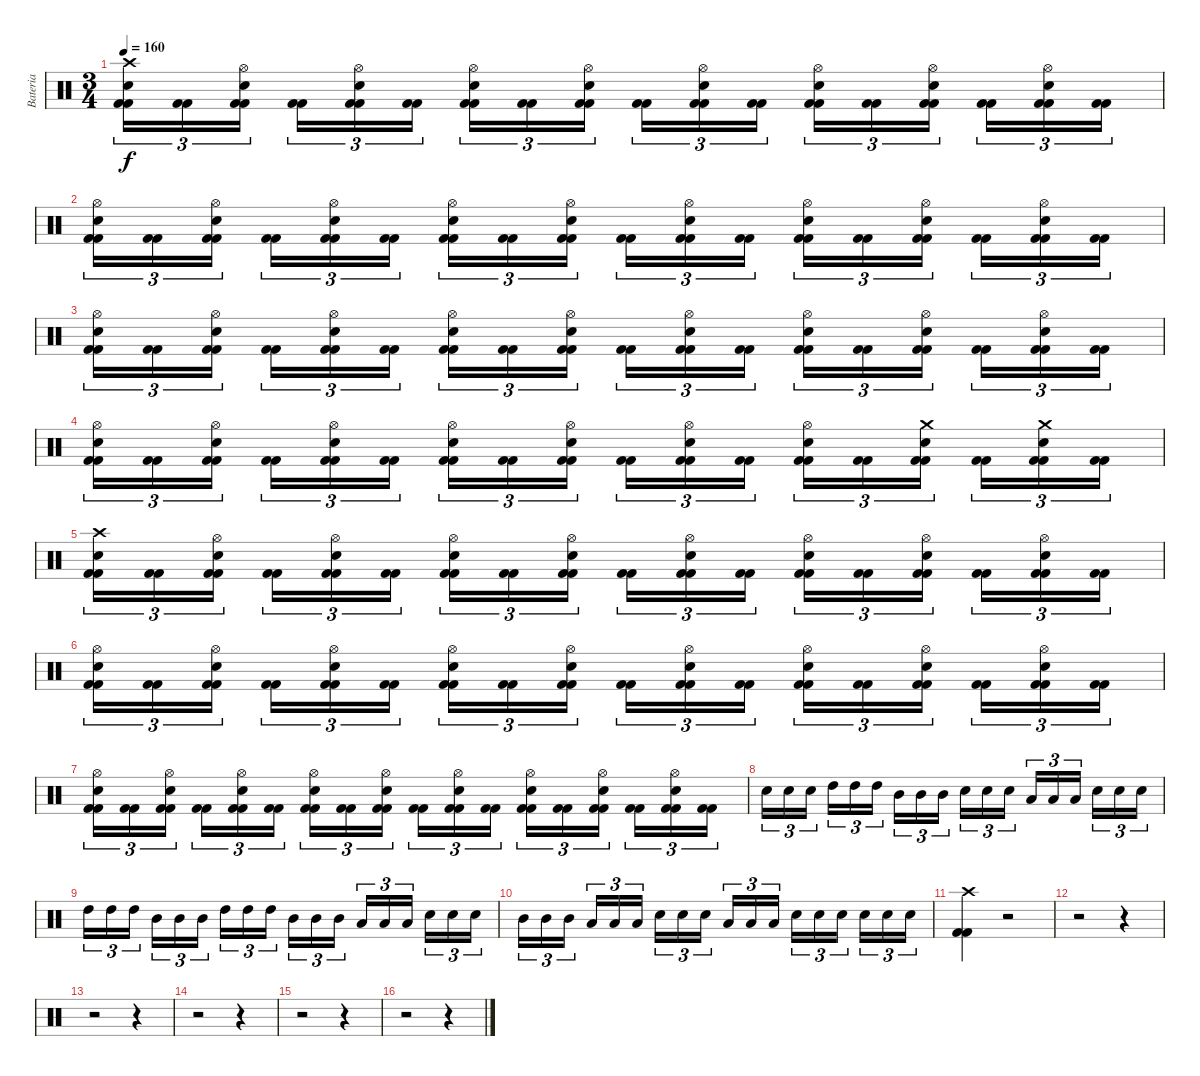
\track ("Bateria" "Bateria") {instrument percussion}
\staff {score}
\articulation defaults
\ts (3 4)
\tempo 160
\clef neutral
\ks c
("Kick (hit) 2" "Kick (hit) 2" "Snare (hit) 2" "Crash high (hit)").16{tu (3 2) dy f} ("Kick (hit) 2" "Kick (hit) 2").16{tu (3 2)} ("Kick (hit) 2" "Kick (hit) 2" "Snare (hit) 2" "Hi-Hat (open)").16{tu (3 2)} ("Kick (hit) 2" "Kick (hit) 2").16{tu (3 2)} ("Kick (hit) 2" "Kick (hit) 2" "Snare (hit) 2" "Hi-Hat (open)").16{tu (3 2)} ("Kick (hit) 2" "Kick (hit) 2").16{tu (3 2)} ("Kick (hit) 2" "Kick (hit) 2" "Snare (hit) 2" "Hi-Hat (open)").16{tu (3 2)} ("Kick (hit) 2" "Kick (hit) 2").16{tu (3 2)} ("Kick (hit) 2" "Kick (hit) 2" "Snare (hit) 2" "Hi-Hat (open)").16{tu (3 2)} ("Kick (hit) 2" "Kick (hit) 2").16{tu (3 2)} ("Kick (hit) 2" "Kick (hit) 2" "Snare (hit) 2" "Hi-Hat (open)").16{tu (3 2)} ("Kick (hit) 2" "Kick (hit) 2").16{tu (3 2)} ("Kick (hit) 2" "Kick (hit) 2" "Snare (hit) 2" "Hi-Hat (open)").16{tu (3 2)} ("Kick (hit) 2" "Kick (hit) 2").16{tu (3 2)} ("Kick (hit) 2" "Kick (hit) 2" "Snare (hit) 2" "Hi-Hat (open)").16{tu (3 2)} ("Kick (hit) 2" "Kick (hit) 2").16{tu (3 2)} ("Kick (hit) 2" "Kick (hit) 2" "Snare (hit) 2" "Hi-Hat (open)").16{tu (3 2)} ("Kick (hit) 2" "Kick (hit) 2").16{tu (3 2)} |
("Kick (hit) 2" "Kick (hit) 2" "Snare (hit) 2" "Hi-Hat (open)").16{tu (3 2)} ("Kick (hit) 2" "Kick (hit) 2").16{tu (3 2)} ("Kick (hit) 2" "Kick (hit) 2" "Snare (hit) 2" "Hi-Hat (open)").16{tu (3 2)} ("Kick (hit) 2" "Kick (hit) 2").16{tu (3 2)} ("Kick (hit) 2" "Kick (hit) 2" "Snare (hit) 2" "Hi-Hat (open)").16{tu (3 2)} ("Kick (hit) 2" "Kick (hit) 2").16{tu (3 2)} ("Kick (hit) 2" "Kick (hit) 2" "Snare (hit) 2" "Hi-Hat (open)").16{tu (3 2)} ("Kick (hit) 2" "Kick (hit) 2").16{tu (3 2)} ("Kick (hit) 2" "Kick (hit) 2" "Snare (hit) 2" "Hi-Hat (open)").16{tu (3 2)} ("Kick (hit) 2" "Kick (hit) 2").16{tu (3 2)} ("Kick (hit) 2" "Kick (hit) 2" "Snare (hit) 2" "Hi-Hat (open)").16{tu (3 2)} ("Kick (hit) 2" "Kick (hit) 2").16{tu (3 2)} ("Kick (hit) 2" "Kick (hit) 2" "Snare (hit) 2" "Hi-Hat (open)").16{tu (3 2)} ("Kick (hit) 2" "Kick (hit) 2").16{tu (3 2)} ("Kick (hit) 2" "Kick (hit) 2" "Snare (hit) 2" "Hi-Hat (open)").16{tu (3 2)} ("Kick (hit) 2" "Kick (hit) 2").16{tu (3 2)} ("Kick (hit) 2" "Kick (hit) 2" "Snare (hit) 2" "Hi-Hat (open)").16{tu (3 2)} ("Kick (hit) 2" "Kick (hit) 2").16{tu (3 2)} |
("Kick (hit) 2" "Kick (hit) 2" "Snare (hit) 2" "Hi-Hat (open)").16{tu (3 2)} ("Kick (hit) 2" "Kick (hit) 2").16{tu (3 2)} ("Kick (hit) 2" "Kick (hit) 2" "Snare (hit) 2" "Hi-Hat (open)").16{tu (3 2)} ("Kick (hit) 2" "Kick (hit) 2").16{tu (3 2)} ("Kick (hit) 2" "Kick (hit) 2" "Snare (hit) 2" "Hi-Hat (open)").16{tu (3 2)} ("Kick (hit) 2" "Kick (hit) 2").16{tu (3 2)} ("Kick (hit) 2" "Kick (hit) 2" "Snare (hit) 2" "Hi-Hat (open)").16{tu (3 2)} ("Kick (hit) 2" "Kick (hit) 2").16{tu (3 2)} ("Kick (hit) 2" "Kick (hit) 2" "Snare (hit) 2" "Hi-Hat (open)").16{tu (3 2)} ("Kick (hit) 2" "Kick (hit) 2").16{tu (3 2)} ("Kick (hit) 2" "Kick (hit) 2" "Snare (hit) 2" "Hi-Hat (open)").16{tu (3 2)} ("Kick (hit) 2" "Kick (hit) 2").16{tu (3 2)} ("Kick (hit) 2" "Kick (hit) 2" "Snare (hit) 2" "Hi-Hat (open)").16{tu (3 2)} ("Kick (hit) 2" "Kick (hit) 2").16{tu (3 2)} ("Kick (hit) 2" "Kick (hit) 2" "Snare (hit) 2" "Hi-Hat (open)").16{tu (3 2)} ("Kick (hit) 2" "Kick (hit) 2").16{tu (3 2)} ("Kick (hit) 2" "Kick (hit) 2" "Snare (hit) 2" "Hi-Hat (open)").16{tu (3 2)} ("Kick (hit) 2" "Kick (hit) 2").16{tu (3 2)} |
("Kick (hit) 2" "Kick (hit) 2" "Snare (hit) 2" "Hi-Hat (open)").16{tu (3 2)} ("Kick (hit) 2" "Kick (hit) 2").16{tu (3 2)} ("Kick (hit) 2" "Kick (hit) 2" "Snare (hit) 2" "Hi-Hat (open)").16{tu (3 2)} ("Kick (hit) 2" "Kick (hit) 2").16{tu (3 2)} ("Kick (hit) 2" "Kick (hit) 2" "Snare (hit) 2" "Hi-Hat (open)").16{tu (3 2)} ("Kick (hit) 2" "Kick (hit) 2").16{tu (3 2)} ("Kick (hit) 2" "Kick (hit) 2" "Snare (hit) 2" "Hi-Hat (open)").16{tu (3 2)} ("Kick (hit) 2" "Kick (hit) 2").16{tu (3 2)} ("Kick (hit) 2" "Kick (hit) 2" "Snare (hit) 2" "Hi-Hat (open)").16{tu (3 2)} ("Kick (hit) 2" "Kick (hit) 2").16{tu (3 2)} ("Kick (hit) 2" "Kick (hit) 2" "Snare (hit) 2" "Hi-Hat (open)").16{tu (3 2)} ("Kick (hit) 2" "Kick (hit) 2").16{tu (3 2)} ("Kick (hit) 2" "Kick (hit) 2" "Snare (hit) 2" "Hi-Hat (open)").16{tu (3 2)} ("Kick (hit) 2" "Kick (hit) 2").16{tu (3 2)} ("Kick (hit) 2" "Kick (hit) 2" "Snare (hit) 2" "Crash medium (hit)").16{tu (3 2)} ("Kick (hit) 2" "Kick (hit) 2").16{tu (3 2)} ("Kick (hit) 2" "Kick (hit) 2" "Snare (hit) 2" "Crash medium (hit)").16{tu (3 2)} ("Kick (hit) 2" "Kick (hit) 2").16{tu (3 2)} |
("Kick (hit) 2" "Kick (hit) 2" "Snare (hit) 2" "Crash high (hit)").16{tu (3 2)} ("Kick (hit) 2" "Kick (hit) 2").16{tu (3 2)} ("Kick (hit) 2" "Kick (hit) 2" "Snare (hit) 2" "Hi-Hat (open)").16{tu (3 2)} ("Kick (hit) 2" "Kick (hit) 2").16{tu (3 2)} ("Kick (hit) 2" "Kick (hit) 2" "Snare (hit) 2" "Hi-Hat (open)").16{tu (3 2)} ("Kick (hit) 2" "Kick (hit) 2").16{tu (3 2)} ("Kick (hit) 2" "Kick (hit) 2" "Snare (hit) 2" "Hi-Hat (open)").16{tu (3 2)} ("Kick (hit) 2" "Kick (hit) 2").16{tu (3 2)} ("Kick (hit) 2" "Kick (hit) 2" "Snare (hit) 2" "Hi-Hat (open)").16{tu (3 2)} ("Kick (hit) 2" "Kick (hit) 2").16{tu (3 2)} ("Kick (hit) 2" "Kick (hit) 2" "Snare (hit) 2" "Hi-Hat (open)").16{tu (3 2)} ("Kick (hit) 2" "Kick (hit) 2").16{tu (3 2)} ("Kick (hit) 2" "Kick (hit) 2" "Snare (hit) 2" "Hi-Hat (open)").16{tu (3 2)} ("Kick (hit) 2" "Kick (hit) 2").16{tu (3 2)} ("Kick (hit) 2" "Kick (hit) 2" "Snare (hit) 2" "Hi-Hat (open)").16{tu (3 2)} ("Kick (hit) 2" "Kick (hit) 2").16{tu (3 2)} ("Kick (hit) 2" "Kick (hit) 2" "Snare (hit) 2" "Hi-Hat (open)").16{tu (3 2)} ("Kick (hit) 2" "Kick (hit) 2").16{tu (3 2)} |
("Kick (hit) 2" "Kick (hit) 2" "Snare (hit) 2" "Hi-Hat (open)").16{tu (3 2)} ("Kick (hit) 2" "Kick (hit) 2").16{tu (3 2)} ("Kick (hit) 2" "Kick (hit) 2" "Snare (hit) 2" "Hi-Hat (open)").16{tu (3 2)} ("Kick (hit) 2" "Kick (hit) 2").16{tu (3 2)} ("Kick (hit) 2" "Kick (hit) 2" "Snare (hit) 2" "Hi-Hat (open)").16{tu (3 2)} ("Kick (hit) 2" "Kick (hit) 2").16{tu (3 2)} ("Kick (hit) 2" "Kick (hit) 2" "Snare (hit) 2" "Hi-Hat (open)").16{tu (3 2)} ("Kick (hit) 2" "Kick (hit) 2").16{tu (3 2)} ("Kick (hit) 2" "Kick (hit) 2" "Snare (hit) 2" "Hi-Hat (open)").16{tu (3 2)} ("Kick (hit) 2" "Kick (hit) 2").16{tu (3 2)} ("Kick (hit) 2" "Kick (hit) 2" "Snare (hit) 2" "Hi-Hat (open)").16{tu (3 2)} ("Kick (hit) 2" "Kick (hit) 2").16{tu (3 2)} ("Kick (hit) 2" "Kick (hit) 2" "Snare (hit) 2" "Hi-Hat (open)").16{tu (3 2)} ("Kick (hit) 2" "Kick (hit) 2").16{tu (3 2)} ("Kick (hit) 2" "Kick (hit) 2" "Snare (hit) 2" "Hi-Hat (open)").16{tu (3 2)} ("Kick (hit) 2" "Kick (hit) 2").16{tu (3 2)} ("Kick (hit) 2" "Kick (hit) 2" "Snare (hit) 2" "Hi-Hat (open)").16{tu (3 2)} ("Kick (hit) 2" "Kick (hit) 2").16{tu (3 2)} |
("Kick (hit) 2" "Kick (hit) 2" "Snare (hit) 2" "Hi-Hat (open)").16{tu (3 2)} ("Kick (hit) 2" "Kick (hit) 2").16{tu (3 2)} ("Kick (hit) 2" "Kick (hit) 2" "Snare (hit) 2" "Hi-Hat (open)").16{tu (3 2)} ("Kick (hit) 2" "Kick (hit) 2").16{tu (3 2)} ("Kick (hit) 2" "Kick (hit) 2" "Snare (hit) 2" "Hi-Hat (open)").16{tu (3 2)} ("Kick (hit) 2" "Kick (hit) 2").16{tu (3 2)} ("Kick (hit) 2" "Kick (hit) 2" "Snare (hit) 2" "Hi-Hat (open)").16{tu (3 2)} ("Kick (hit) 2" "Kick (hit) 2").16{tu (3 2)} ("Kick (hit) 2" "Kick (hit) 2" "Snare (hit) 2" "Hi-Hat (open)").16{tu (3 2)} ("Kick (hit) 2" "Kick (hit) 2").16{tu (3 2)} ("Kick (hit) 2" "Kick (hit) 2" "Snare (hit) 2" "Hi-Hat (open)").16{tu (3 2)} ("Kick (hit) 2" "Kick (hit) 2").16{tu (3 2)} ("Kick (hit) 2" "Kick (hit) 2" "Snare (hit) 2" "Hi-Hat (open)").16{tu (3 2)} ("Kick (hit) 2" "Kick (hit) 2").16{tu (3 2)} ("Kick (hit) 2" "Kick (hit) 2" "Snare (hit) 2" "Hi-Hat (open)").16{tu (3 2)} ("Kick (hit) 2" "Kick (hit) 2").16{tu (3 2)} ("Kick (hit) 2" "Kick (hit) 2" "Snare (hit) 2" "Hi-Hat (open)").16{tu (3 2)} ("Kick (hit) 2" "Kick (hit) 2").16{tu (3 2)} |
"Snare (hit) 2".16{tu (3 2)} "Snare (hit) 2".16{tu (3 2)} "Snare (hit) 2".16{tu (3 2)} "High Tom (hit)".16{tu (3 2)} "High Tom (hit)".16{tu (3 2)} "High Tom (hit)".16{tu (3 2)} "Mid Tom (hit)".16{tu (3 2)} "Mid Tom (hit)".16{tu (3 2)} "Mid Tom (hit)".16{tu (3 2)} "Snare (hit) 2".16{tu (3 2)} "Snare (hit) 2".16{tu (3 2)} "Snare (hit) 2".16{tu (3 2)} "Low Tom (hit)".16{tu (3 2)} "Low Tom (hit)".16{tu (3 2)} "Low Tom (hit)".16{tu (3 2)} "Snare (hit) 2".16{tu (3 2)} "Snare (hit) 2".16{tu (3 2)} "Snare (hit) 2".16{tu (3 2)} |
"High Tom (hit)".16{tu (3 2)} "High Tom (hit)".16{tu (3 2)} "High Tom (hit)".16{tu (3 2)} "Mid Tom (hit)".16{tu (3 2)} "Mid Tom (hit)".16{tu (3 2)} "Mid Tom (hit)".16{tu (3 2)} "High Tom (hit)".16{tu (3 2)} "High Tom (hit)".16{tu (3 2)} "High Tom (hit)".16{tu (3 2)} "Mid Tom (hit)".16{tu (3 2)} "Mid Tom (hit)".16{tu (3 2)} "Mid Tom (hit)".16{tu (3 2)} "Low Tom (hit)".16{tu (3 2)} "Low Tom (hit)".16{tu (3 2)} "Low Tom (hit)".16{tu (3 2)} "Snare (hit) 2".16{tu (3 2)} "Snare (hit) 2".16{tu (3 2)} "Snare (hit) 2".16{tu (3 2)} |
"Mid Tom (hit)".16{tu (3 2)} "Mid Tom (hit)".16{tu (3 2)} "Mid Tom (hit)".16{tu (3 2)} "Low Tom (hit)".16{tu (3 2)} "Low Tom (hit)".16{tu (3 2)} "Low Tom (hit)".16{tu (3 2)} "Snare (hit) 2".16{tu (3 2)} "Snare (hit) 2".16{tu (3 2)} "Snare (hit) 2".16{tu (3 2)} "Low Tom (hit)".16{tu (3 2)} "Low Tom (hit)".16{tu (3 2)} "Low Tom (hit)".16{tu (3 2)} "Snare (hit) 2".16{tu (3 2)} "Snare (hit) 2".16{tu (3 2)} "Snare (hit) 2".16{tu (3 2)} "Snare (hit) 2".16{tu (3 2)} "Snare (hit) 2".16{tu (3 2)} "Snare (hit) 2".16{tu (3 2)} |
("Kick (hit) 2" "Kick (hit) 2" "Crash high (hit)").4 r.2 |
r.2 r.4 |
r.2 r.4 |
r.2 r.4 |
r.2 r.4 |
r.2 r.4
